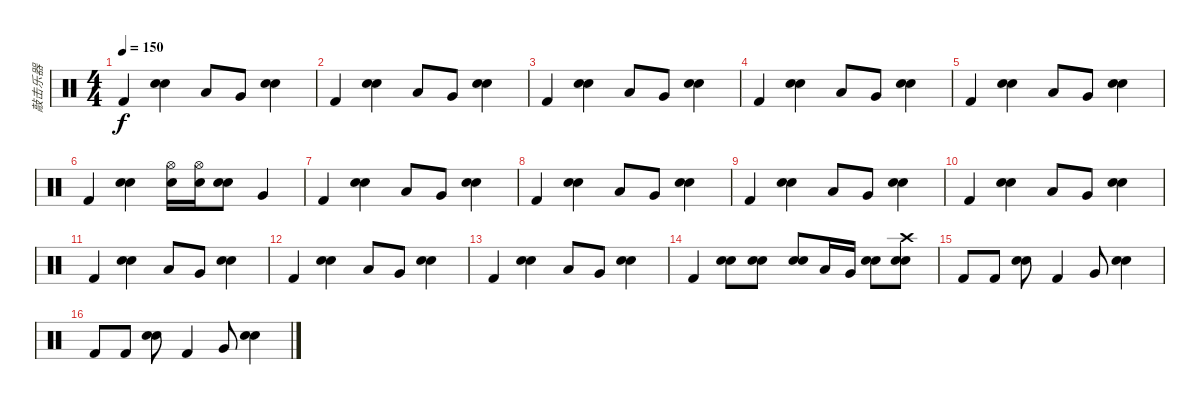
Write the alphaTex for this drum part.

\track ("敲击乐器" "敲击乐器") {instrument percussion}
\staff {score}
\articulation defaults
\ts (4 4)
\tempo 150
\clef neutral
\ks c "Kick (hit) 2".4{dy f}
("Electric Snare (hit)" "Snare (hit) 2").4 "Low Tom (hit)".8 "Very Low Tom (hit)".8 ("Electric Snare (hit)" "Snare (hit) 2").4 |
"Kick (hit) 2".4 ("Electric Snare (hit)" "Snare (hit) 2").4 "Low Tom (hit)".8 "Very Low Tom (hit)".8 ("Electric Snare (hit)" "Snare (hit) 2").4 |
"Kick (hit) 2".4 ("Electric Snare (hit)" "Snare (hit) 2").4 "Low Tom (hit)".8 "Very Low Tom (hit)".8 ("Electric Snare (hit)" "Snare (hit) 2").4 |
"Kick (hit) 2".4 ("Electric Snare (hit)" "Snare (hit) 2").4 "Low Tom (hit)".8 "Very Low Tom (hit)".8 ("Electric Snare (hit)" "Snare (hit) 2").4 |
"Kick (hit) 2".4 ("Electric Snare (hit)" "Snare (hit) 2").4 "Low Tom (hit)".8 "Very Low Tom (hit)".8 ("Electric Snare (hit)" "Snare (hit) 2").4 |
"Kick (hit) 2".4 ("Electric Snare (hit)" "Snare (hit) 2").4 ("Hi-Hat (open)" "Snare (hit) 2").16 ("Hi-Hat (open)" "Snare (hit) 2").16 ("Electric Snare (hit)" "Snare (hit) 2").8 "Very Low Tom (hit)".4 |
"Kick (hit) 2".4 ("Electric Snare (hit)" "Snare (hit) 2").4 "Low Tom (hit)".8 "Very Low Tom (hit)".8 ("Electric Snare (hit)" "Snare (hit) 2").4 |
"Kick (hit) 2".4 ("Electric Snare (hit)" "Snare (hit) 2").4 "Low Tom (hit)".8 "Very Low Tom (hit)".8 ("Electric Snare (hit)" "Snare (hit) 2").4 |
"Kick (hit) 2".4 ("Electric Snare (hit)" "Snare (hit) 2").4 "Low Tom (hit)".8 "Very Low Tom (hit)".8 ("Electric Snare (hit)" "Snare (hit) 2").4 |
"Kick (hit) 2".4 ("Electric Snare (hit)" "Snare (hit) 2").4 "Low Tom (hit)".8 "Very Low Tom (hit)".8 ("Electric Snare (hit)" "Snare (hit) 2").4 |
"Kick (hit) 2".4 ("Electric Snare (hit)" "Snare (hit) 2").4 "Low Tom (hit)".8 "Very Low Tom (hit)".8 ("Electric Snare (hit)" "Snare (hit) 2").4 |
"Kick (hit) 2".4 ("Electric Snare (hit)" "Snare (hit) 2").4 "Low Tom (hit)".8 "Very Low Tom (hit)".8 ("Electric Snare (hit)" "Snare (hit) 2").4 |
"Kick (hit) 2".4 ("Electric Snare (hit)" "Snare (hit) 2").4 "Low Tom (hit)".8 "Very Low Tom (hit)".8 ("Electric Snare (hit)" "Snare (hit) 2").4 |
"Kick (hit) 2".4 ("Electric Snare (hit)" "Snare (hit) 2").8 ("Electric Snare (hit)" "Snare (hit) 2").8 ("Electric Snare (hit)" "Snare (hit) 2").8 "Low Tom (hit)".16 "Very Low Tom (hit)".16 ("Electric Snare (hit)" "Snare (hit) 2").8 ("Crash high (hit)" "Electric Snare (hit)" "Snare (hit) 2").8 |
"Kick (hit) 2".8 "Kick (hit) 2".8 ("Electric Snare (hit)" "Snare (hit) 2").8 "Kick (hit) 2".4 "Very Low Tom (hit)".8 ("Electric Snare (hit)" "Snare (hit) 2").4 |
"Kick (hit) 2".8 "Kick (hit) 2".8 ("Electric Snare (hit)" "Snare (hit) 2").8 "Kick (hit) 2".4 "Very Low Tom (hit)".8 ("Electric Snare (hit)" "Snare (hit) 2").4
